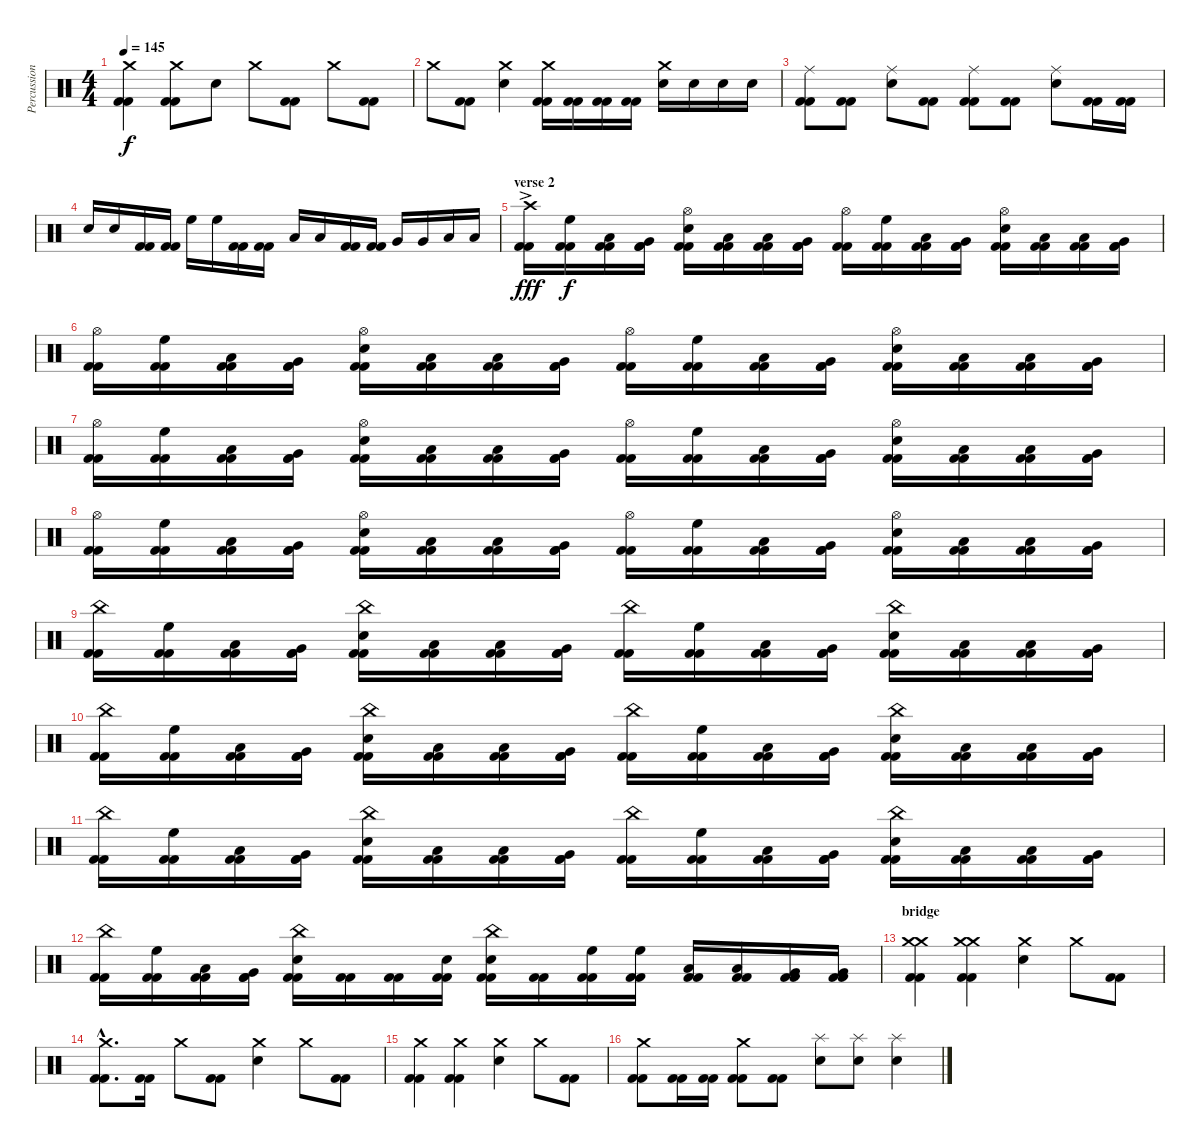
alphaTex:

\track ("Percussion" "Percussion") {instrument percussion}
\staff {score}
\articulation defaults
\ts (4 4)
\tempo 145
\clef neutral
\ks c
("Crash medium (hit)" "Kick (hit) 2" "Kick (hit) 2").4{dy f} ("Crash medium (hit)" "Kick (hit) 2" "Kick (hit) 2").8 "Electric Snare (hit)".8 "Crash medium (hit)".8 ("Kick (hit) 2" "Kick (hit) 2").8 "Crash medium (hit)".8 ("Kick (hit) 2" "Kick (hit) 2").8 |
"Crash medium (hit)".8 ("Kick (hit) 2" "Kick (hit) 2").8 ("Crash medium (hit)" "Electric Snare (hit)").4 ("Crash medium (hit)" "Kick (hit) 2" "Kick (hit) 2").16 ("Kick (hit) 2" "Kick (hit) 2").16 ("Kick (hit) 2" "Kick (hit) 2").16 ("Kick (hit) 2" "Kick (hit) 2").16 ("Crash medium (hit)" "Electric Snare (hit)").16 "Electric Snare (hit)".16 "Electric Snare (hit)".16 "Electric Snare (hit)".16 |
("Ride (middle)" "Kick (hit) 2" "Kick (hit) 2").8 ("Kick (hit) 2" "Kick (hit) 2").8 ("Ride (middle)" "Electric Snare (hit)").8 ("Kick (hit) 2" "Kick (hit) 2").8 ("Ride (middle)" "Kick (hit) 2" "Kick (hit) 2").8 ("Kick (hit) 2" "Kick (hit) 2").8 ("Ride (middle)" "Electric Snare (hit)").8 ("Kick (hit) 2" "Kick (hit) 2").16 ("Kick (hit) 2" "Kick (hit) 2").16 |
"Electric Snare (hit)".16 "Electric Snare (hit)".16 ("Kick (hit) 2" "Kick (hit) 2").16 ("Kick (hit) 2" "Kick (hit) 2").16 "High Floor Tom (hit)".16 "High Floor Tom (hit)".16 ("Kick (hit) 2" "Kick (hit) 2").16 ("Kick (hit) 2" "Kick (hit) 2").16 "Low Tom (hit)".16 "Low Tom (hit)".16 ("Kick (hit) 2" "Kick (hit) 2").16 ("Kick (hit) 2" "Kick (hit) 2").16 "Very Low Tom (hit)".16 "Very Low Tom (hit)".16 "Low Floor Tom (hit)".16 "Low Floor Tom (hit)".16 |
\section ("" "verse 2")
("Crash high (hit)"{ac} "Kick (hit) 2" "Kick (hit) 2").16{dy fff} ("High Floor Tom (hit)" "Kick (hit) 2" "Kick (hit) 2").16{dy f} ("Low Floor Tom (hit)" "Kick (hit) 2" "Kick (hit) 2").16 ("Very Low Tom (hit)" "Kick (hit) 2" "Kick (hit) 2").16 ("Hi-Hat (open)" "Electric Snare (hit)" "Kick (hit) 2" "Kick (hit) 2").16 ("Low Tom (hit)" "Kick (hit) 2" "Kick (hit) 2").16 ("Low Floor Tom (hit)" "Kick (hit) 2" "Kick (hit) 2").16 ("Very Low Tom (hit)" "Kick (hit) 2" "Kick (hit) 2").16 ("Hi-Hat (open)" "Kick (hit) 2" "Kick (hit) 2").16 ("High Floor Tom (hit)" "Kick (hit) 2" "Kick (hit) 2").16 ("Low Floor Tom (hit)" "Kick (hit) 2" "Kick (hit) 2").16 ("Very Low Tom (hit)" "Kick (hit) 2" "Kick (hit) 2").16 ("Hi-Hat (open)" "Electric Snare (hit)" "Kick (hit) 2" "Kick (hit) 2").16 ("Low Tom (hit)" "Kick (hit) 2" "Kick (hit) 2").16 ("Low Floor Tom (hit)" "Kick (hit) 2" "Kick (hit) 2").16 ("Very Low Tom (hit)" "Kick (hit) 2" "Kick (hit) 2").16 |
("Hi-Hat (open)" "Kick (hit) 2" "Kick (hit) 2").16 ("High Floor Tom (hit)" "Kick (hit) 2" "Kick (hit) 2").16 ("Low Floor Tom (hit)" "Kick (hit) 2" "Kick (hit) 2").16 ("Very Low Tom (hit)" "Kick (hit) 2" "Kick (hit) 2").16 ("Hi-Hat (open)" "Electric Snare (hit)" "Kick (hit) 2" "Kick (hit) 2").16 ("Low Tom (hit)" "Kick (hit) 2" "Kick (hit) 2").16 ("Low Floor Tom (hit)" "Kick (hit) 2" "Kick (hit) 2").16 ("Very Low Tom (hit)" "Kick (hit) 2" "Kick (hit) 2").16 ("Hi-Hat (open)" "Kick (hit) 2" "Kick (hit) 2").16 ("High Floor Tom (hit)" "Kick (hit) 2" "Kick (hit) 2").16 ("Low Floor Tom (hit)" "Kick (hit) 2" "Kick (hit) 2").16 ("Very Low Tom (hit)" "Kick (hit) 2" "Kick (hit) 2").16 ("Hi-Hat (open)" "Electric Snare (hit)" "Kick (hit) 2" "Kick (hit) 2").16 ("Low Tom (hit)" "Kick (hit) 2" "Kick (hit) 2").16 ("Low Floor Tom (hit)" "Kick (hit) 2" "Kick (hit) 2").16 ("Very Low Tom (hit)" "Kick (hit) 2" "Kick (hit) 2").16 |
("Hi-Hat (open)" "Kick (hit) 2" "Kick (hit) 2").16 ("High Floor Tom (hit)" "Kick (hit) 2" "Kick (hit) 2").16 ("Low Floor Tom (hit)" "Kick (hit) 2" "Kick (hit) 2").16 ("Very Low Tom (hit)" "Kick (hit) 2" "Kick (hit) 2").16 ("Hi-Hat (open)" "Electric Snare (hit)" "Kick (hit) 2" "Kick (hit) 2").16 ("Low Tom (hit)" "Kick (hit) 2" "Kick (hit) 2").16 ("Low Floor Tom (hit)" "Kick (hit) 2" "Kick (hit) 2").16 ("Very Low Tom (hit)" "Kick (hit) 2" "Kick (hit) 2").16 ("Hi-Hat (open)" "Kick (hit) 2" "Kick (hit) 2").16 ("High Floor Tom (hit)" "Kick (hit) 2" "Kick (hit) 2").16 ("Low Floor Tom (hit)" "Kick (hit) 2" "Kick (hit) 2").16 ("Very Low Tom (hit)" "Kick (hit) 2" "Kick (hit) 2").16 ("Hi-Hat (open)" "Electric Snare (hit)" "Kick (hit) 2" "Kick (hit) 2").16 ("Low Tom (hit)" "Kick (hit) 2" "Kick (hit) 2").16 ("Low Floor Tom (hit)" "Kick (hit) 2" "Kick (hit) 2").16 ("Very Low Tom (hit)" "Kick (hit) 2" "Kick (hit) 2").16 |
("Hi-Hat (open)" "Kick (hit) 2" "Kick (hit) 2").16 ("High Floor Tom (hit)" "Kick (hit) 2" "Kick (hit) 2").16 ("Low Floor Tom (hit)" "Kick (hit) 2" "Kick (hit) 2").16 ("Very Low Tom (hit)" "Kick (hit) 2" "Kick (hit) 2").16 ("Hi-Hat (open)" "Electric Snare (hit)" "Kick (hit) 2" "Kick (hit) 2").16 ("Low Tom (hit)" "Kick (hit) 2" "Kick (hit) 2").16 ("Low Floor Tom (hit)" "Kick (hit) 2" "Kick (hit) 2").16 ("Very Low Tom (hit)" "Kick (hit) 2" "Kick (hit) 2").16 ("Hi-Hat (open)" "Kick (hit) 2" "Kick (hit) 2").16 ("High Floor Tom (hit)" "Kick (hit) 2" "Kick (hit) 2").16 ("Low Floor Tom (hit)" "Kick (hit) 2" "Kick (hit) 2").16 ("Very Low Tom (hit)" "Kick (hit) 2" "Kick (hit) 2").16 ("Hi-Hat (open)" "Electric Snare (hit)" "Kick (hit) 2" "Kick (hit) 2").16 ("Low Tom (hit)" "Kick (hit) 2" "Kick (hit) 2").16 ("Low Floor Tom (hit)" "Kick (hit) 2" "Kick (hit) 2").16 ("Very Low Tom (hit)" "Kick (hit) 2" "Kick (hit) 2").16 |
("China (hit)" "Kick (hit) 2" "Kick (hit) 2").16 ("High Floor Tom (hit)" "Kick (hit) 2" "Kick (hit) 2").16 ("Low Floor Tom (hit)" "Kick (hit) 2" "Kick (hit) 2").16 ("Very Low Tom (hit)" "Kick (hit) 2" "Kick (hit) 2").16 ("China (hit)" "Electric Snare (hit)" "Kick (hit) 2" "Kick (hit) 2").16 ("Low Tom (hit)" "Kick (hit) 2" "Kick (hit) 2").16 ("Low Floor Tom (hit)" "Kick (hit) 2" "Kick (hit) 2").16 ("Very Low Tom (hit)" "Kick (hit) 2" "Kick (hit) 2").16 ("China (hit)" "Kick (hit) 2" "Kick (hit) 2").16 ("High Floor Tom (hit)" "Kick (hit) 2" "Kick (hit) 2").16 ("Low Floor Tom (hit)" "Kick (hit) 2" "Kick (hit) 2").16 ("Very Low Tom (hit)" "Kick (hit) 2" "Kick (hit) 2").16 ("China (hit)" "Electric Snare (hit)" "Kick (hit) 2" "Kick (hit) 2").16 ("Low Tom (hit)" "Kick (hit) 2" "Kick (hit) 2").16 ("Low Floor Tom (hit)" "Kick (hit) 2" "Kick (hit) 2").16 ("Very Low Tom (hit)" "Kick (hit) 2" "Kick (hit) 2").16 |
("China (hit)" "Kick (hit) 2" "Kick (hit) 2").16 ("High Floor Tom (hit)" "Kick (hit) 2" "Kick (hit) 2").16 ("Low Floor Tom (hit)" "Kick (hit) 2" "Kick (hit) 2").16 ("Very Low Tom (hit)" "Kick (hit) 2" "Kick (hit) 2").16 ("China (hit)" "Electric Snare (hit)" "Kick (hit) 2" "Kick (hit) 2").16 ("Low Tom (hit)" "Kick (hit) 2" "Kick (hit) 2").16 ("Low Floor Tom (hit)" "Kick (hit) 2" "Kick (hit) 2").16 ("Very Low Tom (hit)" "Kick (hit) 2" "Kick (hit) 2").16 ("China (hit)" "Kick (hit) 2" "Kick (hit) 2").16 ("High Floor Tom (hit)" "Kick (hit) 2" "Kick (hit) 2").16 ("Low Floor Tom (hit)" "Kick (hit) 2" "Kick (hit) 2").16 ("Very Low Tom (hit)" "Kick (hit) 2" "Kick (hit) 2").16 ("China (hit)" "Electric Snare (hit)" "Kick (hit) 2" "Kick (hit) 2").16 ("Low Tom (hit)" "Kick (hit) 2" "Kick (hit) 2").16 ("Low Floor Tom (hit)" "Kick (hit) 2" "Kick (hit) 2").16 ("Very Low Tom (hit)" "Kick (hit) 2" "Kick (hit) 2").16 |
("China (hit)" "Kick (hit) 2" "Kick (hit) 2").16 ("High Floor Tom (hit)" "Kick (hit) 2" "Kick (hit) 2").16 ("Low Floor Tom (hit)" "Kick (hit) 2" "Kick (hit) 2").16 ("Very Low Tom (hit)" "Kick (hit) 2" "Kick (hit) 2").16 ("China (hit)" "Electric Snare (hit)" "Kick (hit) 2" "Kick (hit) 2").16 ("Low Tom (hit)" "Kick (hit) 2" "Kick (hit) 2").16 ("Low Floor Tom (hit)" "Kick (hit) 2" "Kick (hit) 2").16 ("Very Low Tom (hit)" "Kick (hit) 2" "Kick (hit) 2").16 ("China (hit)" "Kick (hit) 2" "Kick (hit) 2").16 ("High Floor Tom (hit)" "Kick (hit) 2" "Kick (hit) 2").16 ("Low Floor Tom (hit)" "Kick (hit) 2" "Kick (hit) 2").16 ("Very Low Tom (hit)" "Kick (hit) 2" "Kick (hit) 2").16 ("China (hit)" "Electric Snare (hit)" "Kick (hit) 2" "Kick (hit) 2").16 ("Low Tom (hit)" "Kick (hit) 2" "Kick (hit) 2").16 ("Low Floor Tom (hit)" "Kick (hit) 2" "Kick (hit) 2").16 ("Very Low Tom (hit)" "Kick (hit) 2" "Kick (hit) 2").16 |
("China (hit)" "Kick (hit) 2" "Kick (hit) 2").16 ("High Floor Tom (hit)" "Kick (hit) 2" "Kick (hit) 2").16 ("Low Floor Tom (hit)" "Kick (hit) 2" "Kick (hit) 2").16 ("Very Low Tom (hit)" "Kick (hit) 2" "Kick (hit) 2").16 ("China (hit)" "Electric Snare (hit)" "Kick (hit) 2" "Kick (hit) 2").16 ("Kick (hit) 2" "Kick (hit) 2").16 ("Kick (hit) 2" "Kick (hit) 2").16 ("Electric Snare (hit)" "Kick (hit) 2" "Kick (hit) 2").16 ("China (hit)" "Electric Snare (hit)" "Kick (hit) 2" "Kick (hit) 2").16 ("Kick (hit) 2" "Kick (hit) 2").16 ("High Floor Tom (hit)" "Kick (hit) 2" "Kick (hit) 2").16 ("High Floor Tom (hit)" "Kick (hit) 2" "Kick (hit) 2").16 ("Low Tom (hit)" "Kick (hit) 2" "Kick (hit) 2").16 ("Low Tom (hit)" "Kick (hit) 2" "Kick (hit) 2").16 ("Very Low Tom (hit)" "Kick (hit) 2" "Kick (hit) 2").16 ("Very Low Tom (hit)" "Kick (hit) 2" "Kick (hit) 2").16 |
\section ("" "bridge")
("Crash medium (hit)" "Crash medium (hit)" "Kick (hit) 2" "Kick (hit) 2").4 ("Crash medium (hit)" "Crash medium (hit)" "Kick (hit) 2" "Kick (hit) 2").4 ("Crash medium (hit)" "Electric Snare (hit)").4 "Crash medium (hit)".8 ("Kick (hit) 2" "Kick (hit) 2").8 |
("Crash medium (hit)"{hac} "Kick (hit) 2"{hac} "Kick (hit) 2"{hac}).8{d} ("Kick (hit) 2" "Kick (hit) 2").16 "Crash medium (hit)".8 ("Kick (hit) 2" "Kick (hit) 2").8 ("Crash medium (hit)" "Electric Snare (hit)").4 "Crash medium (hit)".8 ("Kick (hit) 2" "Kick (hit) 2").8 |
("Crash medium (hit)" "Kick (hit) 2" "Kick (hit) 2").4 ("Crash medium (hit)" "Kick (hit) 2" "Kick (hit) 2").4 ("Crash medium (hit)" "Electric Snare (hit)").4 "Crash medium (hit)".8 ("Kick (hit) 2" "Kick (hit) 2").8 |
("Crash medium (hit)" "Kick (hit) 2" "Kick (hit) 2").8 ("Kick (hit) 2" "Kick (hit) 2").16 ("Kick (hit) 2" "Kick (hit) 2").16 ("Crash medium (hit)" "Kick (hit) 2" "Kick (hit) 2").8 ("Kick (hit) 2" "Kick (hit) 2").8 ("Splash (hit)" "Electric Snare (hit)").8 ("Splash (hit)" "Electric Snare (hit)").8 ("Splash (hit)" "Electric Snare (hit)").4
